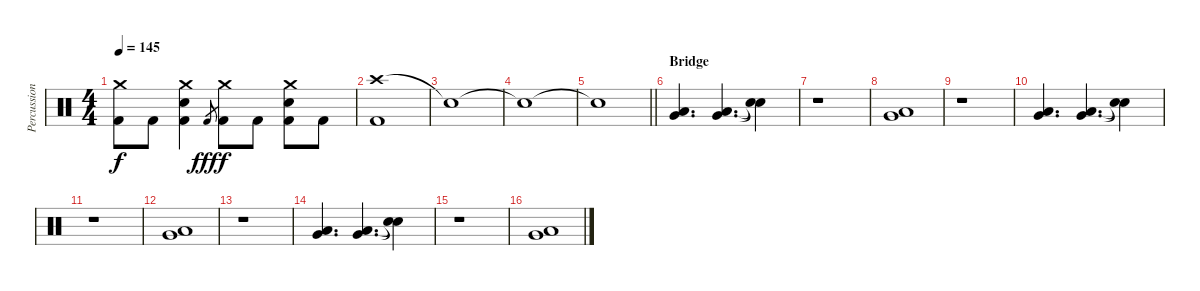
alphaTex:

\track ("Percussion" "Percussion") {instrument percussion}
\staff {score}
\articulation defaults
\ts (4 4)
\tempo 145
\clef neutral
\ks c
("Crash medium (hit)" "Kick (hit) 2").8{dy f} "Kick (hit) 2".8 ("Crash medium (hit)" "Electric Snare (hit)" "Kick (hit) 2").4 "Kick (hit) 2".8{gr dy fff} ("Crash medium (hit)" "Kick (hit) 2").8{dy f} "Kick (hit) 2".8 ("Crash medium (hit)" "Electric Snare (hit)" "Kick (hit) 2").8 "Kick (hit) 2".8 |
("Crash high (hit)" "Kick (hit) 2").1 |
"Snare (hit)"{t}.1 |
"Snare (hit)"{t}.1 |
\barLineRight lightlight "Snare (hit)"{t}.1
|
\section ("" "Bridge")
("Very Low Tom (hit)" "Low Floor Tom (hit)").4{d} ("Very Low Tom (hit)" "Low Floor Tom (hit)").4{d} ("Snare (hit)"{t} "Snare (hit)"{t}).4 |
r.1 |
("Very Low Tom (hit)" "Low Floor Tom (hit)").1 |
r.1 |
("Very Low Tom (hit)" "Low Floor Tom (hit)").4{d} ("Very Low Tom (hit)" "Low Floor Tom (hit)").4{d} ("Snare (hit)"{t} "Snare (hit)"{t}).4 |
r.1 |
("Very Low Tom (hit)" "Low Floor Tom (hit)").1 |
r.1 |
("Very Low Tom (hit)" "Low Floor Tom (hit)").4{d} ("Very Low Tom (hit)" "Low Floor Tom (hit)").4{d} ("Snare (hit)"{t} "Snare (hit)"{t}).4 |
r.1 |
("Very Low Tom (hit)" "Low Floor Tom (hit)").1
